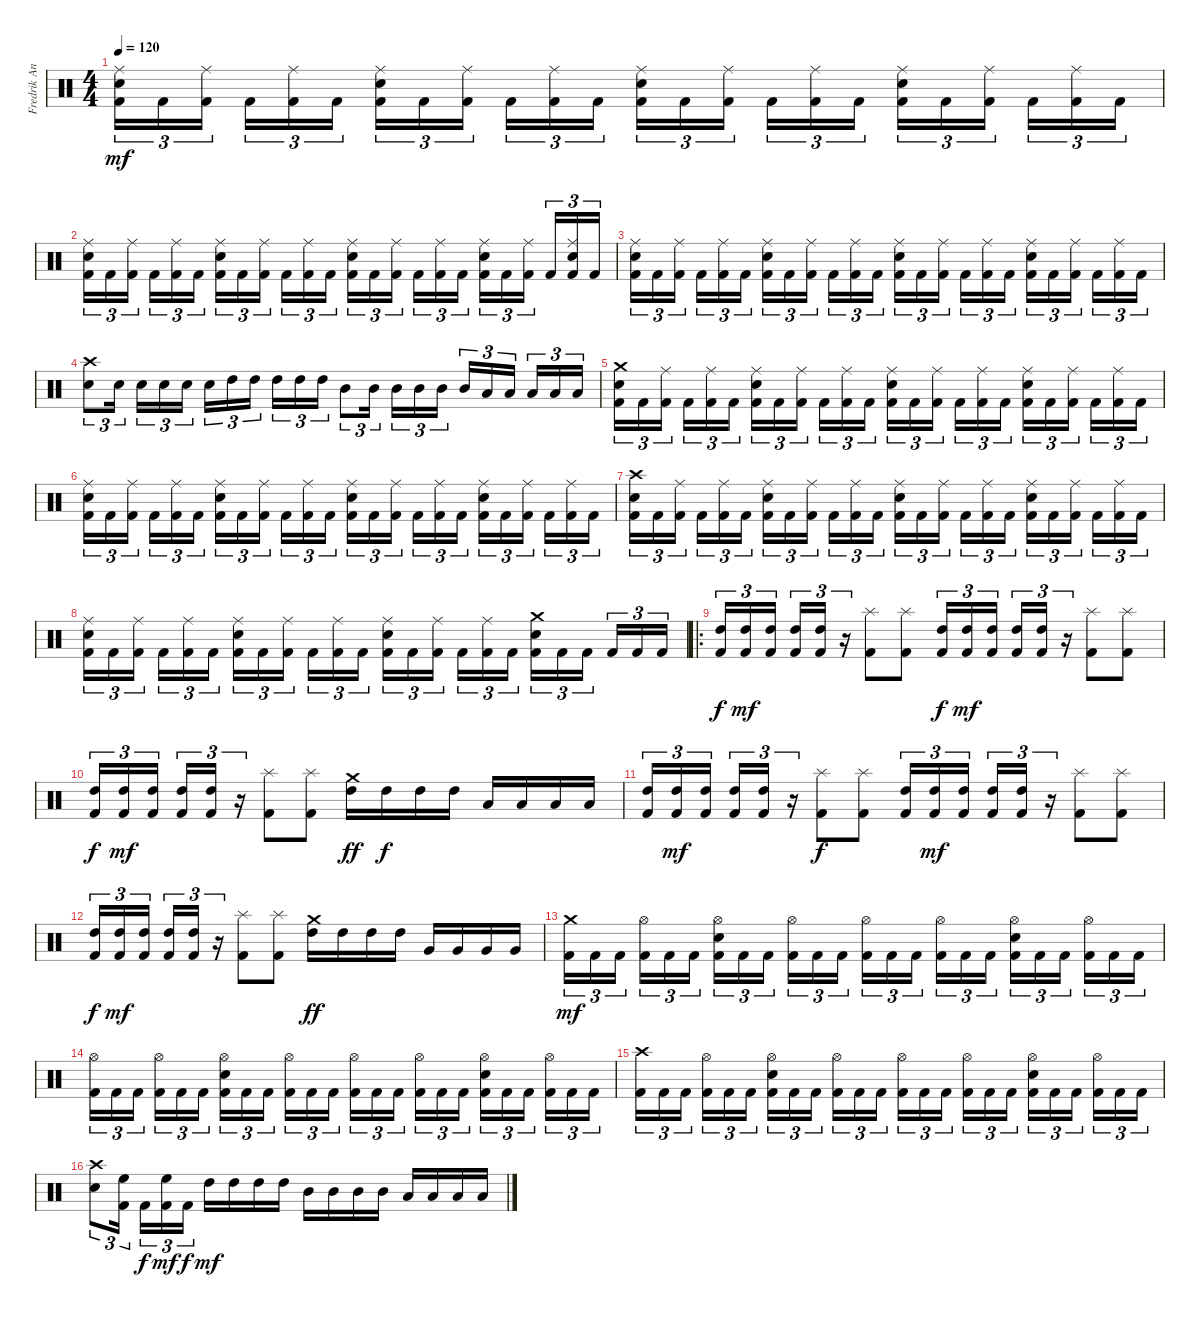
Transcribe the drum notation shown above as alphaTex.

\track ("Fredrik Andersson" "Fredrik An") {instrument percussion}
\staff {score}
\articulation defaults
\ts (4 4)
\tempo 120
\clef neutral
\ks c
("Snare (hit) 2" "Ride (middle)" "Kick (hit) 2").16{tu (3 2) dy mf} "Kick (hit) 2".16{tu (3 2)} ("Ride (middle)" "Kick (hit) 2").16{tu (3 2) beam splitsecondary} "Kick (hit) 2".16{tu (3 2)} ("Ride (middle)" "Kick (hit) 2").16{tu (3 2)} "Kick (hit) 2".16{tu (3 2)} ("Snare (hit) 2" "Ride (middle)" "Kick (hit) 2").16{tu (3 2)} "Kick (hit) 2".16{tu (3 2)} ("Ride (middle)" "Kick (hit) 2").16{tu (3 2) beam splitsecondary} "Kick (hit) 2".16{tu (3 2)} ("Ride (middle)" "Kick (hit) 2").16{tu (3 2)} "Kick (hit) 2".16{tu (3 2)} ("Snare (hit) 2" "Ride (middle)" "Kick (hit) 2").16{tu (3 2)} "Kick (hit) 2".16{tu (3 2)} ("Ride (middle)" "Kick (hit) 2").16{tu (3 2) beam splitsecondary} "Kick (hit) 2".16{tu (3 2)} ("Ride (middle)" "Kick (hit) 2").16{tu (3 2)} "Kick (hit) 2".16{tu (3 2)} ("Snare (hit) 2" "Ride (middle)" "Kick (hit) 2").16{tu (3 2)} "Kick (hit) 2".16{tu (3 2)} ("Ride (middle)" "Kick (hit) 2").16{tu (3 2) beam splitsecondary} "Kick (hit) 2".16{tu (3 2)} ("Ride (middle)" "Kick (hit) 2").16{tu (3 2)} "Kick (hit) 2".16{tu (3 2)} |
("Snare (hit) 2" "Ride (middle)" "Kick (hit) 2").16{tu (3 2)} "Kick (hit) 2".16{tu (3 2)} ("Ride (middle)" "Kick (hit) 2").16{tu (3 2) beam splitsecondary} "Kick (hit) 2".16{tu (3 2)} ("Ride (middle)" "Kick (hit) 2").16{tu (3 2)} "Kick (hit) 2".16{tu (3 2)} ("Snare (hit) 2" "Ride (middle)" "Kick (hit) 2").16{tu (3 2)} "Kick (hit) 2".16{tu (3 2)} ("Ride (middle)" "Kick (hit) 2").16{tu (3 2) beam splitsecondary} "Kick (hit) 2".16{tu (3 2)} ("Ride (middle)" "Kick (hit) 2").16{tu (3 2)} "Kick (hit) 2".16{tu (3 2)} ("Snare (hit) 2" "Ride (middle)" "Kick (hit) 2").16{tu (3 2)} "Kick (hit) 2".16{tu (3 2)} ("Ride (middle)" "Kick (hit) 2").16{tu (3 2) beam splitsecondary} "Kick (hit) 2".16{tu (3 2)} ("Ride (middle)" "Kick (hit) 2").16{tu (3 2)} "Kick (hit) 2".16{tu (3 2)} ("Snare (hit) 2" "Ride (middle)" "Kick (hit) 2").16{tu (3 2)} "Kick (hit) 2".16{tu (3 2)} ("Ride (middle)" "Kick (hit) 2").16{tu (3 2) beam splitsecondary} "Kick (hit) 2".16{tu (3 2)} ("Snare (hit) 2" "Ride (middle)" "Kick (hit) 2").16{tu (3 2)} "Kick (hit) 2".16{tu (3 2)} |
("Snare (hit) 2" "Ride (middle)" "Kick (hit) 2").16{tu (3 2)} "Kick (hit) 2".16{tu (3 2)} ("Ride (middle)" "Kick (hit) 2").16{tu (3 2) beam splitsecondary} "Kick (hit) 2".16{tu (3 2)} ("Ride (middle)" "Kick (hit) 2").16{tu (3 2)} "Kick (hit) 2".16{tu (3 2)} ("Snare (hit) 2" "Ride (middle)" "Kick (hit) 2").16{tu (3 2)} "Kick (hit) 2".16{tu (3 2)} ("Ride (middle)" "Kick (hit) 2").16{tu (3 2) beam splitsecondary} "Kick (hit) 2".16{tu (3 2)} ("Ride (middle)" "Kick (hit) 2").16{tu (3 2)} "Kick (hit) 2".16{tu (3 2)} ("Snare (hit) 2" "Ride (middle)" "Kick (hit) 2").16{tu (3 2)} "Kick (hit) 2".16{tu (3 2)} ("Ride (middle)" "Kick (hit) 2").16{tu (3 2) beam splitsecondary} "Kick (hit) 2".16{tu (3 2)} ("Ride (middle)" "Kick (hit) 2").16{tu (3 2)} "Kick (hit) 2".16{tu (3 2)} ("Snare (hit) 2" "Ride (middle)" "Kick (hit) 2").16{tu (3 2)} "Kick (hit) 2".16{tu (3 2)} ("Ride (middle)" "Kick (hit) 2").16{tu (3 2) beam splitsecondary} "Kick (hit) 2".16{tu (3 2)} ("Ride (middle)" "Kick (hit) 2").16{tu (3 2)} "Kick (hit) 2".16{tu (3 2)} |
("Crash high (hit)" "Snare (hit) 2").8{tu (3 2)} "Snare (hit) 2".16{tu (3 2) beam splitsecondary} "Snare (hit) 2".16{tu (3 2)} "Snare (hit) 2".16{tu (3 2)} "Snare (hit) 2".16{tu (3 2)} "Snare (hit) 2".16{tu (3 2)} "High Tom (hit)".16{tu (3 2)} "High Tom (hit)".16{tu (3 2) beam splitsecondary} "High Tom (hit)".16{tu (3 2)} "High Tom (hit)".16{tu (3 2)} "High Tom (hit)".16{tu (3 2)} "Mid Tom (hit)".8{tu (3 2)} "Mid Tom (hit)".16{tu (3 2) beam splitsecondary} "Mid Tom (hit)".16{tu (3 2)} "Mid Tom (hit)".16{tu (3 2)} "Mid Tom (hit)".16{tu (3 2)} "Mid Tom (hit)".16{tu (3 2)} "Low Tom (hit)".16{tu (3 2)} "Low Tom (hit)".16{tu (3 2) beam splitsecondary} "Low Tom (hit)".16{tu (3 2)} "Low Tom (hit)".16{tu (3 2)} "Low Tom (hit)".16{tu (3 2)} |
("Snare (hit) 2" "Crash medium (hit)" "Kick (hit) 2").16{tu (3 2)} "Kick (hit) 2".16{tu (3 2)} ("Ride (middle)" "Kick (hit) 2").16{tu (3 2) beam splitsecondary} "Kick (hit) 2".16{tu (3 2)} ("Ride (middle)" "Kick (hit) 2").16{tu (3 2)} "Kick (hit) 2".16{tu (3 2)} ("Snare (hit) 2" "Ride (middle)" "Kick (hit) 2").16{tu (3 2)} "Kick (hit) 2".16{tu (3 2)} ("Ride (middle)" "Kick (hit) 2").16{tu (3 2) beam splitsecondary} "Kick (hit) 2".16{tu (3 2)} ("Ride (middle)" "Kick (hit) 2").16{tu (3 2)} "Kick (hit) 2".16{tu (3 2)} ("Snare (hit) 2" "Ride (middle)" "Kick (hit) 2").16{tu (3 2)} "Kick (hit) 2".16{tu (3 2)} ("Ride (middle)" "Kick (hit) 2").16{tu (3 2) beam splitsecondary} "Kick (hit) 2".16{tu (3 2)} ("Ride (middle)" "Kick (hit) 2").16{tu (3 2)} "Kick (hit) 2".16{tu (3 2)} ("Snare (hit) 2" "Ride (middle)" "Kick (hit) 2").16{tu (3 2)} "Kick (hit) 2".16{tu (3 2)} ("Ride (middle)" "Kick (hit) 2").16{tu (3 2) beam splitsecondary} "Kick (hit) 2".16{tu (3 2)} ("Ride (middle)" "Kick (hit) 2").16{tu (3 2)} "Kick (hit) 2".16{tu (3 2)} |
("Snare (hit) 2" "Ride (middle)" "Kick (hit) 2").16{tu (3 2)} "Kick (hit) 2".16{tu (3 2)} ("Ride (middle)" "Kick (hit) 2").16{tu (3 2) beam splitsecondary} "Kick (hit) 2".16{tu (3 2)} ("Ride (middle)" "Kick (hit) 2").16{tu (3 2)} "Kick (hit) 2".16{tu (3 2)} ("Snare (hit) 2" "Ride (middle)" "Kick (hit) 2").16{tu (3 2)} "Kick (hit) 2".16{tu (3 2)} ("Ride (middle)" "Kick (hit) 2").16{tu (3 2) beam splitsecondary} "Kick (hit) 2".16{tu (3 2)} ("Ride (middle)" "Kick (hit) 2").16{tu (3 2)} "Kick (hit) 2".16{tu (3 2)} ("Snare (hit) 2" "Ride (middle)" "Kick (hit) 2").16{tu (3 2)} "Kick (hit) 2".16{tu (3 2)} ("Ride (middle)" "Kick (hit) 2").16{tu (3 2) beam splitsecondary} "Kick (hit) 2".16{tu (3 2)} ("Ride (middle)" "Kick (hit) 2").16{tu (3 2)} "Kick (hit) 2".16{tu (3 2)} ("Snare (hit) 2" "Ride (middle)" "Kick (hit) 2").16{tu (3 2)} "Kick (hit) 2".16{tu (3 2)} ("Ride (middle)" "Kick (hit) 2").16{tu (3 2) beam splitsecondary} "Kick (hit) 2".16{tu (3 2)} ("Ride (middle)" "Kick (hit) 2").16{tu (3 2)} "Kick (hit) 2".16{tu (3 2)} |
("Snare (hit) 2" "Crash high (hit)" "Kick (hit) 2").16{tu (3 2)} "Kick (hit) 2".16{tu (3 2)} ("Ride (middle)" "Kick (hit) 2").16{tu (3 2) beam splitsecondary} "Kick (hit) 2".16{tu (3 2)} ("Ride (middle)" "Kick (hit) 2").16{tu (3 2)} "Kick (hit) 2".16{tu (3 2)} ("Snare (hit) 2" "Ride (middle)" "Kick (hit) 2").16{tu (3 2)} "Kick (hit) 2".16{tu (3 2)} ("Ride (middle)" "Kick (hit) 2").16{tu (3 2) beam splitsecondary} "Kick (hit) 2".16{tu (3 2)} ("Ride (middle)" "Kick (hit) 2").16{tu (3 2)} "Kick (hit) 2".16{tu (3 2)} ("Snare (hit) 2" "Ride (middle)" "Kick (hit) 2").16{tu (3 2)} "Kick (hit) 2".16{tu (3 2)} ("Ride (middle)" "Kick (hit) 2").16{tu (3 2) beam splitsecondary} "Kick (hit) 2".16{tu (3 2)} ("Ride (middle)" "Kick (hit) 2").16{tu (3 2)} "Kick (hit) 2".16{tu (3 2)} ("Snare (hit) 2" "Ride (middle)" "Kick (hit) 2").16{tu (3 2)} "Kick (hit) 2".16{tu (3 2)} ("Ride (middle)" "Kick (hit) 2").16{tu (3 2) beam splitsecondary} "Kick (hit) 2".16{tu (3 2)} ("Ride (middle)" "Kick (hit) 2").16{tu (3 2)} "Kick (hit) 2".16{tu (3 2)} |
("Snare (hit) 2" "Ride (middle)" "Kick (hit) 2").16{tu (3 2)} "Kick (hit) 2".16{tu (3 2)} ("Ride (middle)" "Kick (hit) 2").16{tu (3 2) beam splitsecondary} "Kick (hit) 2".16{tu (3 2)} ("Ride (middle)" "Kick (hit) 2").16{tu (3 2)} "Kick (hit) 2".16{tu (3 2)} ("Snare (hit) 2" "Ride (middle)" "Kick (hit) 2").16{tu (3 2)} "Kick (hit) 2".16{tu (3 2)} ("Ride (middle)" "Kick (hit) 2").16{tu (3 2) beam splitsecondary} "Kick (hit) 2".16{tu (3 2)} ("Ride (middle)" "Kick (hit) 2").16{tu (3 2)} "Kick (hit) 2".16{tu (3 2)} ("Snare (hit) 2" "Ride (middle)" "Kick (hit) 2").16{tu (3 2)} "Kick (hit) 2".16{tu (3 2)} ("Ride (middle)" "Kick (hit) 2").16{tu (3 2) beam splitsecondary} "Kick (hit) 2".16{tu (3 2)} ("Ride (middle)" "Kick (hit) 2").16{tu (3 2)} "Kick (hit) 2".16{tu (3 2)} ("Snare (hit) 2" "Crash medium (hit)" "Kick (hit) 2").16{tu (3 2)} "Kick (hit) 2".16{tu (3 2)} "Kick (hit) 2".16{tu (3 2) beam splitsecondary} "Kick (hit) 2".16{tu (3 2)} "Kick (hit) 2".16{tu (3 2)} "Kick (hit) 2".16{tu (3 2)} |
\ro
("High Tom (hit)" "Kick (hit) 2").16{tu (3 2) dy f} ("High Tom (hit)" "Kick (hit) 2").16{tu (3 2) dy mf} ("High Tom (hit)" "Kick (hit) 2").16{tu (3 2) beam splitsecondary} ("High Tom (hit)" "Kick (hit) 2").16{tu (3 2)} ("High Tom (hit)" "Kick (hit) 2").16{tu (3 2)} r.16{tu (3 2)} ("Splash (hit)" "Kick (hit) 2").8 ("Splash (hit)" "Kick (hit) 2").8 ("High Tom (hit)" "Kick (hit) 2").16{tu (3 2) dy f} ("High Tom (hit)" "Kick (hit) 2").16{tu (3 2) dy mf} ("High Tom (hit)" "Kick (hit) 2").16{tu (3 2) beam splitsecondary} ("High Tom (hit)" "Kick (hit) 2").16{tu (3 2)} ("High Tom (hit)" "Kick (hit) 2").16{tu (3 2)} r.16{tu (3 2)} ("Splash (hit)" "Kick (hit) 2").8 ("Splash (hit)" "Kick (hit) 2").8 |
("High Tom (hit)" "Kick (hit) 2").16{tu (3 2) dy f} ("High Tom (hit)" "Kick (hit) 2").16{tu (3 2) dy mf} ("High Tom (hit)" "Kick (hit) 2").16{tu (3 2) beam splitsecondary} ("High Tom (hit)" "Kick (hit) 2").16{tu (3 2)} ("High Tom (hit)" "Kick (hit) 2").16{tu (3 2)} r.16{tu (3 2)} ("Splash (hit)" "Kick (hit) 2").8 ("Splash (hit)" "Kick (hit) 2").8 ("Crash medium (hit)" "High Tom (hit)").16{dy ff} "High Tom (hit)".16{dy f} "High Tom (hit)".16 "High Tom (hit)".16 "Low Tom (hit)".16 "Low Tom (hit)".16 "Low Tom (hit)".16 "Low Tom (hit)".16 |
("High Tom (hit)" "Kick (hit) 2").16{tu (3 2)} ("High Tom (hit)" "Kick (hit) 2").16{tu (3 2) dy mf} ("High Tom (hit)" "Kick (hit) 2").16{tu (3 2) beam splitsecondary} ("High Tom (hit)" "Kick (hit) 2").16{tu (3 2)} ("High Tom (hit)" "Kick (hit) 2").16{tu (3 2)} r.16{tu (3 2)} ("Splash (hit)" "Kick (hit) 2").8{dy f} ("Splash (hit)" "Kick (hit) 2").8 ("High Tom (hit)" "Kick (hit) 2").16{tu (3 2)} ("High Tom (hit)" "Kick (hit) 2").16{tu (3 2) dy mf} ("High Tom (hit)" "Kick (hit) 2").16{tu (3 2) beam splitsecondary} ("High Tom (hit)" "Kick (hit) 2").16{tu (3 2)} ("High Tom (hit)" "Kick (hit) 2").16{tu (3 2)} r.16{tu (3 2)} ("Splash (hit)" "Kick (hit) 2").8 ("Splash (hit)" "Kick (hit) 2").8 |
("High Tom (hit)" "Kick (hit) 2").16{tu (3 2) dy f} ("High Tom (hit)" "Kick (hit) 2").16{tu (3 2) dy mf} ("High Tom (hit)" "Kick (hit) 2").16{tu (3 2) beam splitsecondary} ("High Tom (hit)" "Kick (hit) 2").16{tu (3 2)} ("High Tom (hit)" "Kick (hit) 2").16{tu (3 2)} r.16{tu (3 2)} ("Splash (hit)" "Kick (hit) 2").8 ("Splash (hit)" "Kick (hit) 2").8 ("Crash medium (hit)" "High Tom (hit)").16{dy ff} "High Tom (hit)".16 "High Tom (hit)".16 "High Tom (hit)".16 "Very Low Tom (hit)".16 "Very Low Tom (hit)".16 "Very Low Tom (hit)".16 "Very Low Tom (hit)".16 |
("Crash medium (hit)" "Kick (hit) 2").16{tu (3 2) dy mf} "Kick (hit) 2".16{tu (3 2)} "Kick (hit) 2".16{tu (3 2) beam splitsecondary} ("Hi-Hat (open)" "Kick (hit) 2").16{tu (3 2)} "Kick (hit) 2".16{tu (3 2)} "Kick (hit) 2".16{tu (3 2)} ("Snare (hit) 2" "Hi-Hat (open)" "Kick (hit) 2").16{tu (3 2)} "Kick (hit) 2".16{tu (3 2)} "Kick (hit) 2".16{tu (3 2) beam splitsecondary} ("Hi-Hat (open)" "Kick (hit) 2").16{tu (3 2)} "Kick (hit) 2".16{tu (3 2)} "Kick (hit) 2".16{tu (3 2)} ("Hi-Hat (open)" "Kick (hit) 2").16{tu (3 2)} "Kick (hit) 2".16{tu (3 2)} "Kick (hit) 2".16{tu (3 2) beam splitsecondary} ("Hi-Hat (open)" "Kick (hit) 2").16{tu (3 2)} "Kick (hit) 2".16{tu (3 2)} "Kick (hit) 2".16{tu (3 2)} ("Snare (hit) 2" "Hi-Hat (open)" "Kick (hit) 2").16{tu (3 2)} "Kick (hit) 2".16{tu (3 2)} "Kick (hit) 2".16{tu (3 2) beam splitsecondary} ("Hi-Hat (open)" "Kick (hit) 2").16{tu (3 2)} "Kick (hit) 2".16{tu (3 2)} "Kick (hit) 2".16{tu (3 2)} |
("Hi-Hat (open)" "Kick (hit) 2").16{tu (3 2)} "Kick (hit) 2".16{tu (3 2)} "Kick (hit) 2".16{tu (3 2) beam splitsecondary} ("Hi-Hat (open)" "Kick (hit) 2").16{tu (3 2)} "Kick (hit) 2".16{tu (3 2)} "Kick (hit) 2".16{tu (3 2)} ("Snare (hit) 2" "Hi-Hat (open)" "Kick (hit) 2").16{tu (3 2)} "Kick (hit) 2".16{tu (3 2)} "Kick (hit) 2".16{tu (3 2) beam splitsecondary} ("Hi-Hat (open)" "Kick (hit) 2").16{tu (3 2)} "Kick (hit) 2".16{tu (3 2)} "Kick (hit) 2".16{tu (3 2)} ("Hi-Hat (open)" "Kick (hit) 2").16{tu (3 2)} "Kick (hit) 2".16{tu (3 2)} "Kick (hit) 2".16{tu (3 2) beam splitsecondary} ("Hi-Hat (open)" "Kick (hit) 2").16{tu (3 2)} "Kick (hit) 2".16{tu (3 2)} "Kick (hit) 2".16{tu (3 2)} ("Snare (hit) 2" "Hi-Hat (open)" "Kick (hit) 2").16{tu (3 2)} "Kick (hit) 2".16{tu (3 2)} "Kick (hit) 2".16{tu (3 2) beam splitsecondary} ("Hi-Hat (open)" "Kick (hit) 2").16{tu (3 2)} "Kick (hit) 2".16{tu (3 2)} "Kick (hit) 2".16{tu (3 2)} |
("Crash high (hit)" "Kick (hit) 2").16{tu (3 2)} "Kick (hit) 2".16{tu (3 2)} "Kick (hit) 2".16{tu (3 2) beam splitsecondary} ("Hi-Hat (open)" "Kick (hit) 2").16{tu (3 2)} "Kick (hit) 2".16{tu (3 2)} "Kick (hit) 2".16{tu (3 2)} ("Snare (hit) 2" "Hi-Hat (open)" "Kick (hit) 2").16{tu (3 2)} "Kick (hit) 2".16{tu (3 2)} "Kick (hit) 2".16{tu (3 2) beam splitsecondary} ("Hi-Hat (open)" "Kick (hit) 2").16{tu (3 2)} "Kick (hit) 2".16{tu (3 2)} "Kick (hit) 2".16{tu (3 2)} ("Hi-Hat (open)" "Kick (hit) 2").16{tu (3 2)} "Kick (hit) 2".16{tu (3 2)} "Kick (hit) 2".16{tu (3 2) beam splitsecondary} ("Hi-Hat (open)" "Kick (hit) 2").16{tu (3 2)} "Kick (hit) 2".16{tu (3 2)} "Kick (hit) 2".16{tu (3 2)} ("Snare (hit) 2" "Hi-Hat (open)" "Kick (hit) 2").16{tu (3 2)} "Kick (hit) 2".16{tu (3 2)} "Kick (hit) 2".16{tu (3 2) beam splitsecondary} ("Hi-Hat (open)" "Kick (hit) 2").16{tu (3 2)} "Kick (hit) 2".16{tu (3 2)} "Kick (hit) 2".16{tu (3 2)} |
("Crash high (hit)" "Snare (hit) 2").8{tu (3 2)} ("High Floor Tom (hit)" "Kick (hit) 2").16{tu (3 2) beam splitsecondary} "Kick (hit) 2".16{tu (3 2) dy f} ("High Floor Tom (hit)" "Kick (hit) 2").16{tu (3 2) dy mf} "Kick (hit) 2".16{tu (3 2) dy f} "High Tom (hit)".16{dy mf} "High Tom (hit)".16 "High Tom (hit)".16 "High Tom (hit)".16 "Mid Tom (hit)".16 "Mid Tom (hit)".16 "Mid Tom (hit)".16 "Mid Tom (hit)".16 "Low Tom (hit)".16 "Low Tom (hit)".16 "Low Tom (hit)".16 "Low Tom (hit)".16
